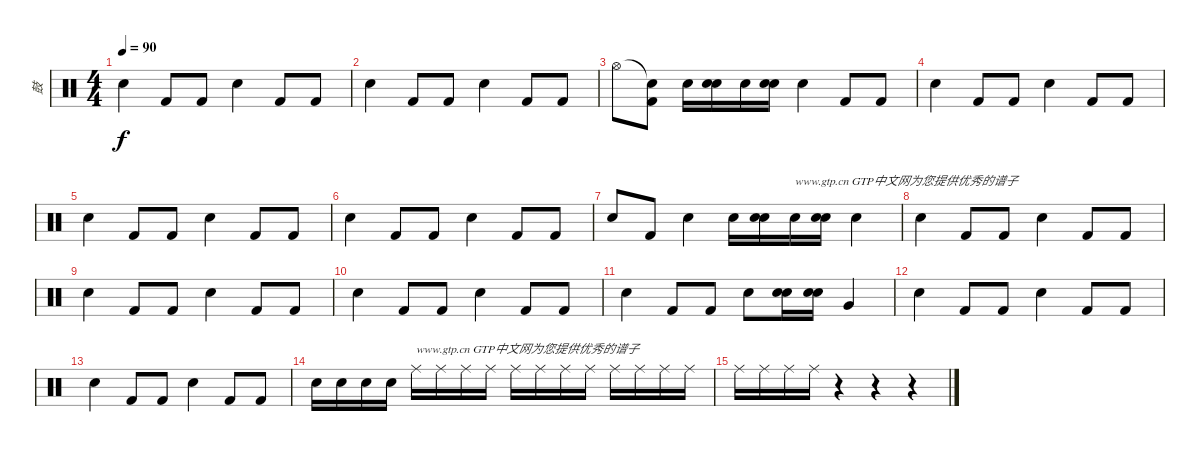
\track ("鼓" "鼓") {instrument percussion}
\staff {score}
\articulation defaults
\ts (4 4)
\tempo 90
\clef neutral
\ks c "Snare (hit) 2".4{dy f} "Kick (hit) 2".8 "Kick (hit) 2".8 "Snare (hit) 2".4 "Kick (hit) 2".8 "Kick (hit) 2".8
|
"Snare (hit) 2".4 "Kick (hit) 2".8 "Kick (hit) 2".8 "Snare (hit) 2".4 "Kick (hit) 2".8 "Kick (hit) 2".8 |
"Hi-Hat (open)".8 ("Snare (hit)"{t} "Kick (hit) 2").8 "Electric Snare (hit)".16 ("Electric Snare (hit)" "Electric Snare (hit)").16 "Electric Snare (hit)".16 ("Electric Snare (hit)" "Electric Snare (hit)").16 "Snare (hit) 2".4 "Kick (hit) 2".8 "Kick (hit) 2".8 |
"Snare (hit) 2".4 "Kick (hit) 2".8 "Kick (hit) 2".8 "Snare (hit) 2".4 "Kick (hit) 2".8 "Kick (hit) 2".8 |
"Snare (hit) 2".4 "Kick (hit) 2".8 "Kick (hit) 2".8 "Snare (hit) 2".4 "Kick (hit) 2".8 "Kick (hit) 2".8 |
"Snare (hit) 2".4 "Kick (hit) 2".8 "Kick (hit) 2".8 "Snare (hit) 2".4 "Kick (hit) 2".8 "Kick (hit) 2".8 |
"Snare (hit) 2".8 "Kick (hit) 2".8 "Snare (hit) 2".4 "Electric Snare (hit)".16 ("Electric Snare (hit)" "Electric Snare (hit)").16 "Electric Snare (hit)".16{txt "www.gtp.cn GTP中文网为您提供优秀的谱子"} ("Electric Snare (hit)" "Electric Snare (hit)").16 "Snare (hit) 2".4 |
"Snare (hit) 2".4 "Kick (hit) 2".8 "Kick (hit) 2".8 "Snare (hit) 2".4 "Kick (hit) 2".8 "Kick (hit) 2".8 |
"Snare (hit) 2".4 "Kick (hit) 2".8 "Kick (hit) 2".8 "Snare (hit) 2".4 "Kick (hit) 2".8 "Kick (hit) 2".8 |
"Snare (hit) 2".4 "Kick (hit) 2".8 "Kick (hit) 2".8 "Snare (hit) 2".4 "Kick (hit) 2".8 "Kick (hit) 2".8 |
"Snare (hit) 2".4 "Kick (hit) 2".8 "Kick (hit) 2".8 "Snare (hit) 2".8 ("Electric Snare (hit)" "Electric Snare (hit)").16 ("Electric Snare (hit)" "Electric Snare (hit)").16 "Very Low Tom (hit)".4 |
"Snare (hit) 2".4 "Kick (hit) 2".8 "Kick (hit) 2".8 "Snare (hit) 2".4 "Kick (hit) 2".8 "Kick (hit) 2".8 |
"Snare (hit) 2".4 "Kick (hit) 2".8 "Kick (hit) 2".8 "Snare (hit) 2".4 "Kick (hit) 2".8 "Kick (hit) 2".8 |
"Electric Snare (hit)".16 "Electric Snare (hit)".16 "Electric Snare (hit)".16 "Electric Snare (hit)".16 "Ride (middle)".16{txt "www.gtp.cn GTP中文网为您提供优秀的谱子"} "Ride (middle)".16 "Ride (middle)".16 "Ride (middle)".16 "Ride (middle)".16 "Ride (middle)".16 "Ride (middle)".16 "Ride (middle)".16 "Ride (middle)".16{volume 16} "Ride (middle)".16{volume 12} "Ride (middle)".16{volume 10} "Ride (middle)".16{volume 8} |
"Ride (middle)".16{volume 6} "Ride (middle)".16{volume 4} "Ride (middle)".16{volume 2} "Ride (middle)".16{volume 0} r.4 r.4 r.4
